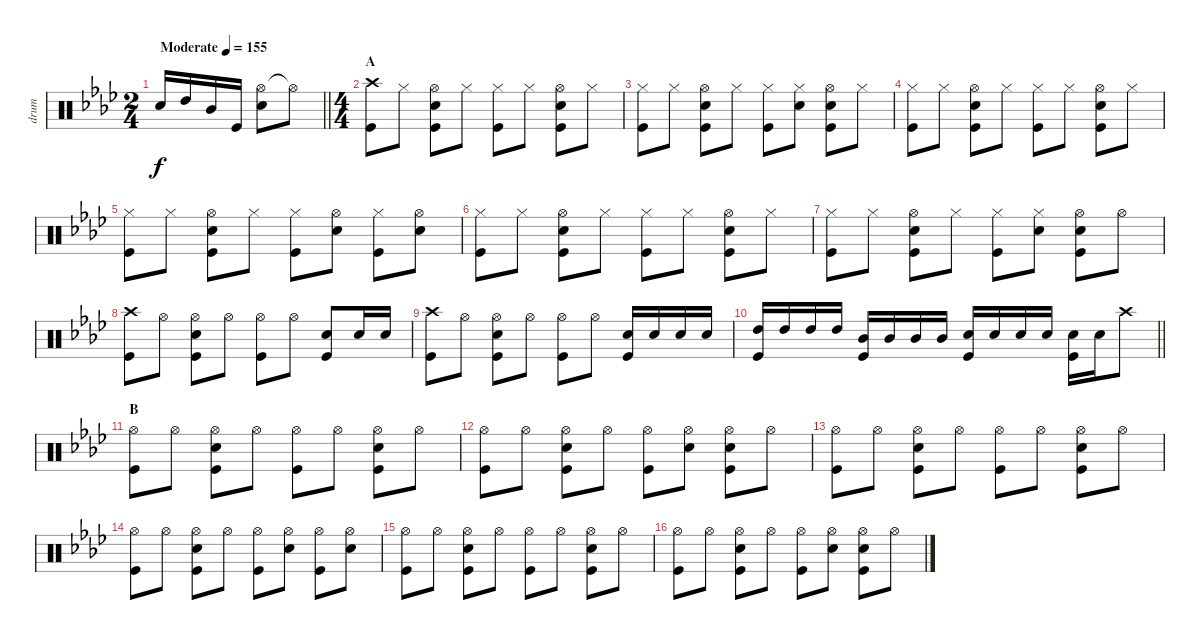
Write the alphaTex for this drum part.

\track ("drum" "drum") {instrument percussion}
\staff {score}
\articulation defaults
\ts (2 4)
\tempo (155 "Moderate")
\clef neutral
\barLineRight lightlight
\ks ab "Snare (hit) 2".16{dy f} "High Tom (hit)".16 "Mid Tom (hit)".16 "Kick (hit)".16
("Hi-Hat (open)" "Snare (hit) 2").8 "Hi-Hat (open)"{t}.8 |
\ts (4 4)
\section ("" "A")
("Crash high (hit)" "Kick (hit)").8 "Hi-Hat (closed)".8 ("Hi-Hat (open)" "Snare (hit) 2" "Kick (hit)").8 "Hi-Hat (closed)".8 ("Hi-Hat (closed)" "Kick (hit)").8 "Hi-Hat (closed)".8 ("Hi-Hat (open)" "Snare (hit) 2" "Kick (hit)").8 "Hi-Hat (closed)".8 |
("Hi-Hat (closed)" "Kick (hit)").8 "Hi-Hat (closed)".8 ("Hi-Hat (open)" "Snare (hit) 2" "Kick (hit)").8 "Hi-Hat (closed)".8 ("Hi-Hat (closed)" "Kick (hit)").8 ("Hi-Hat (closed)" "Snare (hit) 2").8 ("Hi-Hat (open)" "Snare (hit) 2" "Kick (hit)").8 "Hi-Hat (closed)".8 |
("Hi-Hat (closed)" "Kick (hit)").8 "Hi-Hat (closed)".8 ("Hi-Hat (open)" "Snare (hit) 2" "Kick (hit)").8 "Hi-Hat (closed)".8 ("Hi-Hat (closed)" "Kick (hit)").8 "Hi-Hat (closed)".8 ("Hi-Hat (open)" "Snare (hit) 2" "Kick (hit)").8 "Hi-Hat (closed)".8 |
("Hi-Hat (closed)" "Kick (hit)").8 "Hi-Hat (closed)".8 ("Hi-Hat (open)" "Snare (hit) 2" "Kick (hit)").8 "Hi-Hat (closed)".8 ("Hi-Hat (closed)" "Kick (hit)").8 ("Hi-Hat (open)" "Snare (hit) 2").8 ("Hi-Hat (closed)" "Kick (hit)").8 ("Hi-Hat (open)" "Snare (hit) 2").8 |
("Hi-Hat (closed)" "Kick (hit)").8 "Hi-Hat (closed)".8 ("Hi-Hat (open)" "Snare (hit) 2" "Kick (hit)").8 "Hi-Hat (closed)".8 ("Hi-Hat (closed)" "Kick (hit)").8 "Hi-Hat (closed)".8 ("Hi-Hat (open)" "Snare (hit) 2" "Kick (hit)").8 "Hi-Hat (closed)".8 |
("Hi-Hat (closed)" "Kick (hit)").8 "Hi-Hat (closed)".8 ("Hi-Hat (open)" "Snare (hit) 2" "Kick (hit)").8 "Hi-Hat (closed)".8 ("Hi-Hat (closed)" "Kick (hit)").8 ("Hi-Hat (closed)" "Snare (hit) 2").8 ("Hi-Hat (open)" "Snare (hit) 2" "Kick (hit)").8 "Hi-Hat (open)".8 |
("Crash high (hit)" "Kick (hit)").8 "Hi-Hat (open)".8 ("Hi-Hat (open)" "Snare (hit) 2" "Kick (hit)").8 "Hi-Hat (open)".8 ("Hi-Hat (open)" "Kick (hit)").8 "Hi-Hat (open)".8 ("Snare (hit) 2" "Kick (hit)").8 "Snare (hit) 2".16 "Snare (hit) 2".16 |
("Crash high (hit)" "Kick (hit)").8 "Hi-Hat (open)".8 ("Hi-Hat (open)" "Snare (hit) 2" "Kick (hit)").8 "Hi-Hat (open)".8 ("Hi-Hat (open)" "Kick (hit)").8 "Hi-Hat (open)".8 ("Snare (hit) 2" "Kick (hit)").16 "Snare (hit) 2".16 "Snare (hit) 2".16 "Snare (hit) 2".16 |
\barLineRight lightlight
("High Tom (hit)" "Kick (hit)").16 "High Tom (hit)".16 "High Tom (hit)".16 "High Tom (hit)".16 ("Mid Tom (hit)" "Kick (hit)").16 "Mid Tom (hit)".16 "Mid Tom (hit)".16 "Mid Tom (hit)".16 ("Snare (hit) 2" "Kick (hit)").16 "Snare (hit) 2".16 "Snare (hit) 2".16 "Snare (hit) 2".16 ("Snare (hit) 2" "Kick (hit)").16 "Snare (hit) 2".16 "Crash high (hit)".8 |
\section ("" "B")
("Hi-Hat (open)" "Kick (hit)").8 "Hi-Hat (open)".8 ("Hi-Hat (open)" "Snare (hit) 2" "Kick (hit)").8 "Hi-Hat (open)".8 ("Hi-Hat (open)" "Kick (hit)").8 "Hi-Hat (open)".8 ("Hi-Hat (open)" "Snare (hit) 2" "Kick (hit)").8 "Hi-Hat (open)".8 |
("Hi-Hat (open)" "Kick (hit)").8 "Hi-Hat (open)".8 ("Hi-Hat (open)" "Snare (hit) 2" "Kick (hit)").8 "Hi-Hat (open)".8 ("Hi-Hat (open)" "Kick (hit)").8 ("Hi-Hat (open)" "Snare (hit) 2").8 ("Hi-Hat (open)" "Snare (hit) 2" "Kick (hit)").8 "Hi-Hat (open)".8 |
("Hi-Hat (open)" "Kick (hit)").8 "Hi-Hat (open)".8 ("Hi-Hat (open)" "Snare (hit) 2" "Kick (hit)").8 "Hi-Hat (open)".8 ("Hi-Hat (open)" "Kick (hit)").8 "Hi-Hat (open)".8 ("Hi-Hat (open)" "Snare (hit) 2" "Kick (hit)").8 "Hi-Hat (open)".8 |
("Hi-Hat (open)" "Kick (hit)").8 "Hi-Hat (open)".8 ("Hi-Hat (open)" "Snare (hit) 2" "Kick (hit)").8 "Hi-Hat (open)".8 ("Hi-Hat (open)" "Kick (hit)").8 ("Hi-Hat (open)" "Snare (hit) 2").8 ("Hi-Hat (open)" "Kick (hit)").8 ("Hi-Hat (open)" "Snare (hit) 2").8 |
("Hi-Hat (open)" "Kick (hit)").8 "Hi-Hat (open)".8 ("Hi-Hat (open)" "Snare (hit) 2" "Kick (hit)").8 "Hi-Hat (open)".8 ("Hi-Hat (open)" "Kick (hit)").8 "Hi-Hat (open)".8 ("Hi-Hat (open)" "Snare (hit) 2" "Kick (hit)").8 "Hi-Hat (open)".8 |
("Hi-Hat (open)" "Kick (hit)").8 "Hi-Hat (open)".8 ("Hi-Hat (open)" "Snare (hit) 2" "Kick (hit)").8 "Hi-Hat (open)".8 ("Hi-Hat (open)" "Kick (hit)").8 ("Hi-Hat (open)" "Snare (hit) 2").8 ("Hi-Hat (open)" "Snare (hit) 2" "Kick (hit)").8 "Hi-Hat (open)".8
